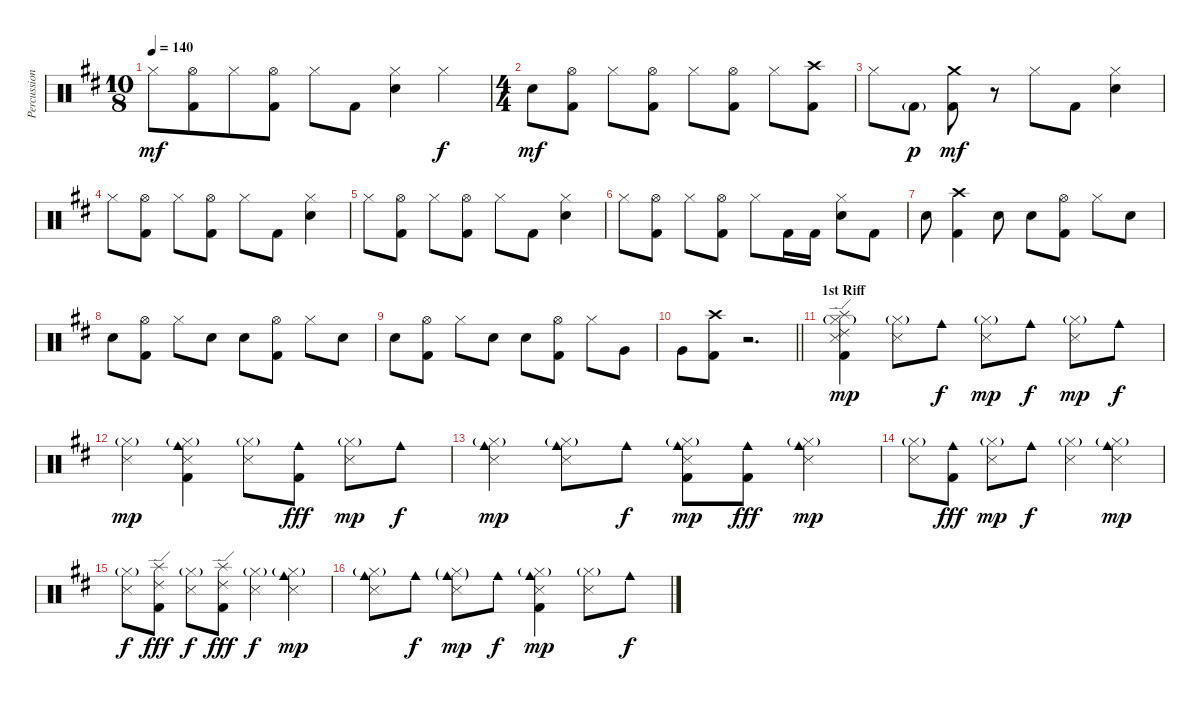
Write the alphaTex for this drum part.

\track ("Percussions" "Percussion") {instrument percussion}
\staff {score}
\articulation defaults
\ts (10 8)
\tempo 140
\clef neutral
\ks d "Hi-Hat (closed)".8{dy mf}
("Kick (hit) 2" "Hi-Hat (open)").8 "Hi-Hat (closed)".8 ("Kick (hit) 2" "Hi-Hat (open)").8 "Hi-Hat (closed)".8 "Kick (hit) 2".8 ("Electric Snare (hit)" "Hi-Hat (closed)").4 "Hi-Hat (closed)".4{dy f} |
\ts (4 4)
"Electric Snare (hit)".8{dy mf} ("Kick (hit) 2" "Hi-Hat (open)").8 "Hi-Hat (closed)".8 ("Kick (hit) 2" "Hi-Hat (open)").8 "Hi-Hat (closed)".8 ("Kick (hit) 2" "Hi-Hat (open)").8 "Hi-Hat (closed)".8 ("Crash high (hit)" "Kick (hit) 2").8 |
"Hi-Hat (closed)".8 "Kick (hit) 2"{g}.8{dy p} ("Crash medium (hit)" "Kick (hit) 2").8{dy mf} r.8 "Hi-Hat (closed)".8 "Kick (hit) 2".8 ("Electric Snare (hit)" "Hi-Hat (closed)").4 |
"Hi-Hat (closed)".8 ("Kick (hit) 2" "Hi-Hat (open)").8 "Hi-Hat (closed)".8 ("Kick (hit) 2" "Hi-Hat (open)").8 "Hi-Hat (closed)".8 "Kick (hit) 2".8 ("Electric Snare (hit)" "Hi-Hat (closed)").4 |
"Hi-Hat (closed)".8 ("Kick (hit) 2" "Hi-Hat (open)").8 "Hi-Hat (closed)".8 ("Kick (hit) 2" "Hi-Hat (open)").8 "Hi-Hat (closed)".8 "Kick (hit) 2".8 ("Electric Snare (hit)" "Hi-Hat (closed)").4 |
"Hi-Hat (closed)".8 ("Kick (hit) 2" "Hi-Hat (open)").8 "Hi-Hat (closed)".8 ("Kick (hit) 2" "Hi-Hat (open)").8 "Hi-Hat (closed)".8 "Kick (hit) 2".16 "Kick (hit) 2".16 ("Electric Snare (hit)" "Hi-Hat (closed)").8 "Kick (hit) 2".8 |
"Electric Snare (hit)".8 ("Crash high (hit)" "Kick (hit) 2").4 "Electric Snare (hit)".8 "Electric Snare (hit)".8 ("Kick (hit) 2" "Hi-Hat (open)").8 "Hi-Hat (closed)".8 "Electric Snare (hit)".8 |
"Electric Snare (hit)".8 ("Kick (hit) 2" "Hi-Hat (open)").8 "Hi-Hat (closed)".8 "Electric Snare (hit)".8 "Electric Snare (hit)".8 ("Kick (hit) 2" "Hi-Hat (open)").8 "Hi-Hat (closed)".8 "Electric Snare (hit)".8 |
"Electric Snare (hit)".8 ("Kick (hit) 2" "Hi-Hat (open)").8 "Hi-Hat (closed)".8 "Electric Snare (hit)".8 "Electric Snare (hit)".8 ("Kick (hit) 2" "Hi-Hat (open)").8 "Hi-Hat (closed)".8 "Very Low Tom (hit)".8 |
\barLineRight lightlight "Very Low Tom (hit)".8
("Crash high (hit)" "Kick (hit) 2").8 r.2{d} |
\section ("" "1st Riff")
("Splash (hit)" "Ride (edge) 2" "Snare (side stick) 3" "Kick (hit) 2" "Hi-Hat (closed)"{g}).4{dy mp} ("Snare (side stick) 3" "Hi-Hat (closed)"{g}).8 "Cowbell medium (hit)".8{dy f} ("Snare (side stick) 3" "Hi-Hat (closed)"{g}).8{dy mp} "Cowbell medium (hit)".8{dy f} ("Snare (side stick) 3" "Hi-Hat (closed)"{g}).8{dy mp} "Cowbell medium (hit)".8{dy f} |
("Snare (side stick) 3" "Hi-Hat (closed)"{g}).4{dy mp} ("Cowbell medium (hit)" "Snare (side stick) 3" "Kick (hit) 2" "Hi-Hat (closed)"{g}).4 ("Snare (side stick) 3" "Hi-Hat (closed)"{g}).8 ("Cowbell medium (hit)" "Kick (hit) 2").8{dy fff} ("Snare (side stick) 3" "Hi-Hat (closed)"{g}).8{dy mp} "Cowbell medium (hit)".8{dy f} |
("Cowbell medium (hit)" "Snare (side stick) 3" "Hi-Hat (closed)"{g}).4{dy mp} ("Cowbell medium (hit)" "Snare (side stick) 3" "Hi-Hat (closed)"{g}).8 "Cowbell medium (hit)".8{dy f} ("Cowbell medium (hit)" "Snare (side stick) 3" "Kick (hit) 2" "Hi-Hat (closed)"{g}).8{dy mp} ("Cowbell medium (hit)" "Kick (hit) 2").8{dy fff} ("Cowbell medium (hit)" "Snare (side stick) 3" "Hi-Hat (closed)"{g}).4{dy mp} |
("Snare (side stick) 3" "Hi-Hat (closed)"{g}).8 ("Cowbell medium (hit)" "Kick (hit) 2").8{dy fff} ("Snare (side stick) 3" "Hi-Hat (closed)"{g}).8{dy mp} "Cowbell medium (hit)".8{dy f} ("Snare (side stick) 3" "Hi-Hat (closed)"{g}).4 ("Cowbell medium (hit)" "Snare (side stick) 3" "Hi-Hat (closed)"{g}).4{dy mp} |
("Snare (side stick) 3" "Hi-Hat (closed)"{g}).8{dy f} ("Ride (edge) 2" "Splash (hit)" "Kick (hit) 2").8{dy fff} ("Snare (side stick) 3" "Hi-Hat (closed)"{g}).8{dy f} ("Ride (edge) 2" "Splash (hit)" "Kick (hit) 2").8{dy fff} ("Snare (side stick) 3" "Hi-Hat (closed)"{g}).4{dy f} ("Cowbell medium (hit)" "Snare (side stick) 3" "Hi-Hat (closed)"{g}).4{dy mp} |
("Cowbell medium (hit)" "Snare (side stick) 3" "Hi-Hat (closed)"{g}).8 "Cowbell medium (hit)".8{dy f} ("Cowbell medium (hit)"{g} "Snare (side stick) 3" "Hi-Hat (closed)"{g}).8{dy mp} "Cowbell medium (hit)".8{dy f} ("Cowbell medium (hit)" "Snare (side stick) 3" "Kick (hit) 2" "Hi-Hat (closed)"{g}).4{dy mp} ("Snare (side stick) 3" "Hi-Hat (closed)"{g}).8 "Cowbell medium (hit)".8{dy f}
